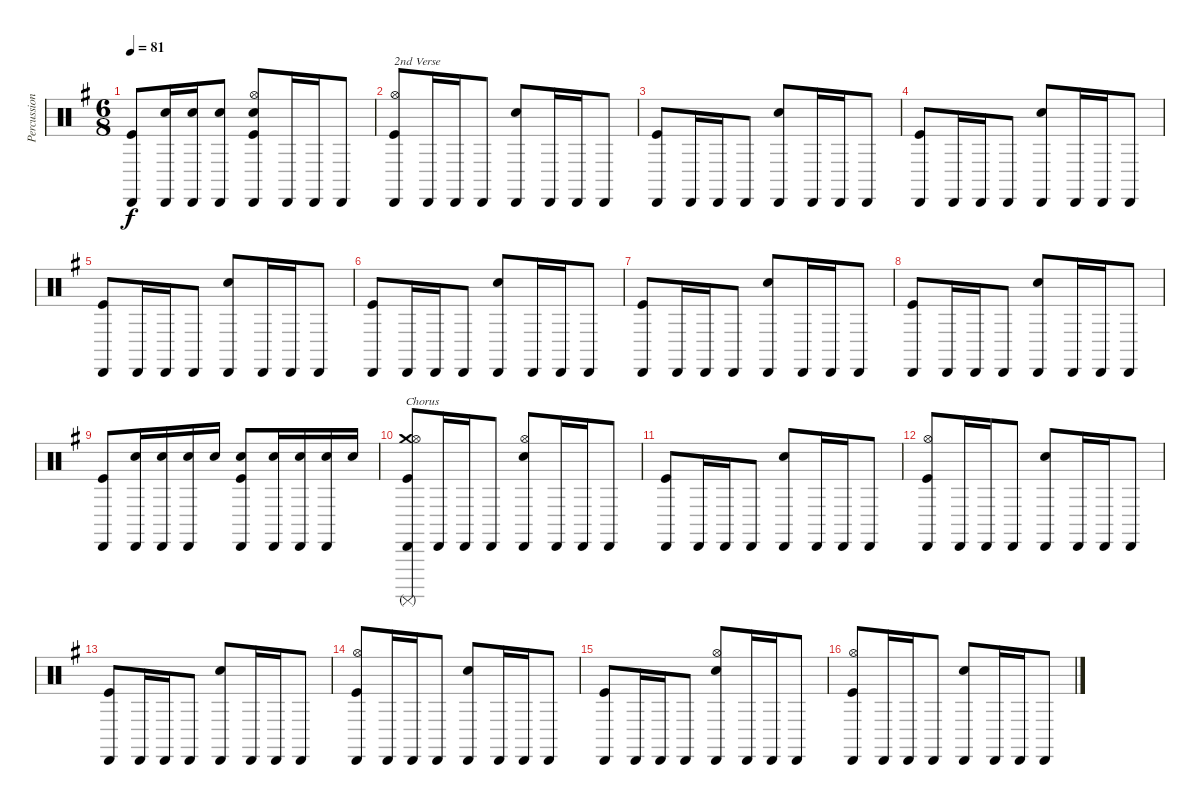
\track ("Percussion" "Percussion") {instrument percussion}
\staff {score}
\articulation defaults
\ts (6 8)
\tempo 81
\clef neutral
\ks g
("Cabasa (hit)" "Kick (hit)").8{dy f} ("Cabasa (hit)" "Snare (hit) 2").16 ("Cabasa (hit)" "Snare (hit) 2").16 ("Cabasa (hit)" "Snare (hit) 2").8 ("Cabasa (hit)" "Hi-Hat (open)" "Kick (hit)" "Snare (hit) 2").8 "Cabasa (hit)".16 "Cabasa (hit)".16 "Cabasa (hit)".8 |
("Cabasa (hit)" "Hi-Hat (open)" "Kick (hit)").8{txt "2nd Verse"} "Cabasa (hit)".16 "Cabasa (hit)".16 "Cabasa (hit)".8 ("Cabasa (hit)" "Snare (hit) 2").8 "Cabasa (hit)".16 "Cabasa (hit)".16 "Cabasa (hit)".8 |
("Cabasa (hit)" "Kick (hit)").8 "Cabasa (hit)".16 "Cabasa (hit)".16 "Cabasa (hit)".8 ("Cabasa (hit)" "Snare (hit) 2").8 "Cabasa (hit)".16 "Cabasa (hit)".16 "Cabasa (hit)".8 |
("Cabasa (hit)" "Kick (hit)").8 "Cabasa (hit)".16 "Cabasa (hit)".16 "Cabasa (hit)".8 ("Cabasa (hit)" "Snare (hit) 2").8 "Cabasa (hit)".16 "Cabasa (hit)".16 "Cabasa (hit)".8 |
("Cabasa (hit)" "Kick (hit)").8 "Cabasa (hit)".16 "Cabasa (hit)".16 "Cabasa (hit)".8 ("Cabasa (hit)" "Snare (hit) 2").8 "Cabasa (hit)".16 "Cabasa (hit)".16 "Cabasa (hit)".8 |
("Cabasa (hit)" "Kick (hit)").8 "Cabasa (hit)".16 "Cabasa (hit)".16 "Cabasa (hit)".8 ("Cabasa (hit)" "Snare (hit) 2").8 "Cabasa (hit)".16 "Cabasa (hit)".16 "Cabasa (hit)".8 |
("Cabasa (hit)" "Kick (hit)").8 "Cabasa (hit)".16 "Cabasa (hit)".16 "Cabasa (hit)".8 ("Cabasa (hit)" "Snare (hit) 2").8 "Cabasa (hit)".16 "Cabasa (hit)".16 "Cabasa (hit)".8 |
("Cabasa (hit)" "Kick (hit)").8 "Cabasa (hit)".16 "Cabasa (hit)".16 "Cabasa (hit)".8 ("Cabasa (hit)" "Snare (hit) 2").8 "Cabasa (hit)".16 "Cabasa (hit)".16 "Cabasa (hit)".8 |
("Cabasa (hit)" "Kick (hit)").8 ("Cabasa (hit)" "Snare (hit) 2").16 ("Cabasa (hit)" "Snare (hit) 2").16 ("Cabasa (hit)" "Snare (hit) 2").16 "Snare (hit) 2".16 ("Cabasa (hit)" "Snare (hit) 2" "Kick (hit)").8 ("Cabasa (hit)" "Snare (hit) 2").16 ("Cabasa (hit)" "Snare (hit) 2").16 ("Cabasa (hit)" "Snare (hit) 2").16 "Snare (hit) 2".16 |
("Cabasa (hit)" "Crash medium (hit)" "Surdo (mute)" "Hi-Hat (open)" "Kick (hit)").8{txt "Chorus"} "Cabasa (hit)".16 "Cabasa (hit)".16 "Cabasa (hit)".8 ("Cabasa (hit)" "Hi-Hat (open)" "Snare (hit) 2").8 "Cabasa (hit)".16 "Cabasa (hit)".16 "Cabasa (hit)".8 |
("Cabasa (hit)" "Kick (hit)").8 "Cabasa (hit)".16 "Cabasa (hit)".16 "Cabasa (hit)".8 ("Cabasa (hit)" "Snare (hit) 2").8 "Cabasa (hit)".16 "Cabasa (hit)".16 "Cabasa (hit)".8 |
("Cabasa (hit)" "Hi-Hat (open)" "Kick (hit)").8 "Cabasa (hit)".16 "Cabasa (hit)".16 "Cabasa (hit)".8 ("Cabasa (hit)" "Snare (hit) 2").8 "Cabasa (hit)".16 "Cabasa (hit)".16 "Cabasa (hit)".8 |
("Cabasa (hit)" "Kick (hit)").8 "Cabasa (hit)".16 "Cabasa (hit)".16 "Cabasa (hit)".8 ("Cabasa (hit)" "Snare (hit) 2").8 "Cabasa (hit)".16 "Cabasa (hit)".16 "Cabasa (hit)".8 |
("Cabasa (hit)" "Hi-Hat (open)" "Kick (hit)").8 "Cabasa (hit)".16 "Cabasa (hit)".16 "Cabasa (hit)".8 ("Cabasa (hit)" "Snare (hit) 2").8 "Cabasa (hit)".16 "Cabasa (hit)".16 "Cabasa (hit)".8 |
("Cabasa (hit)" "Kick (hit)").8 "Cabasa (hit)".16 "Cabasa (hit)".16 "Cabasa (hit)".8 ("Cabasa (hit)" "Hi-Hat (open)" "Snare (hit) 2").8 "Cabasa (hit)".16 "Cabasa (hit)".16 "Cabasa (hit)".8 |
("Cabasa (hit)" "Hi-Hat (open)" "Kick (hit)").8 "Cabasa (hit)".16 "Cabasa (hit)".16 "Cabasa (hit)".8 ("Cabasa (hit)" "Snare (hit) 2").8 "Cabasa (hit)".16 "Cabasa (hit)".16 "Cabasa (hit)".8
